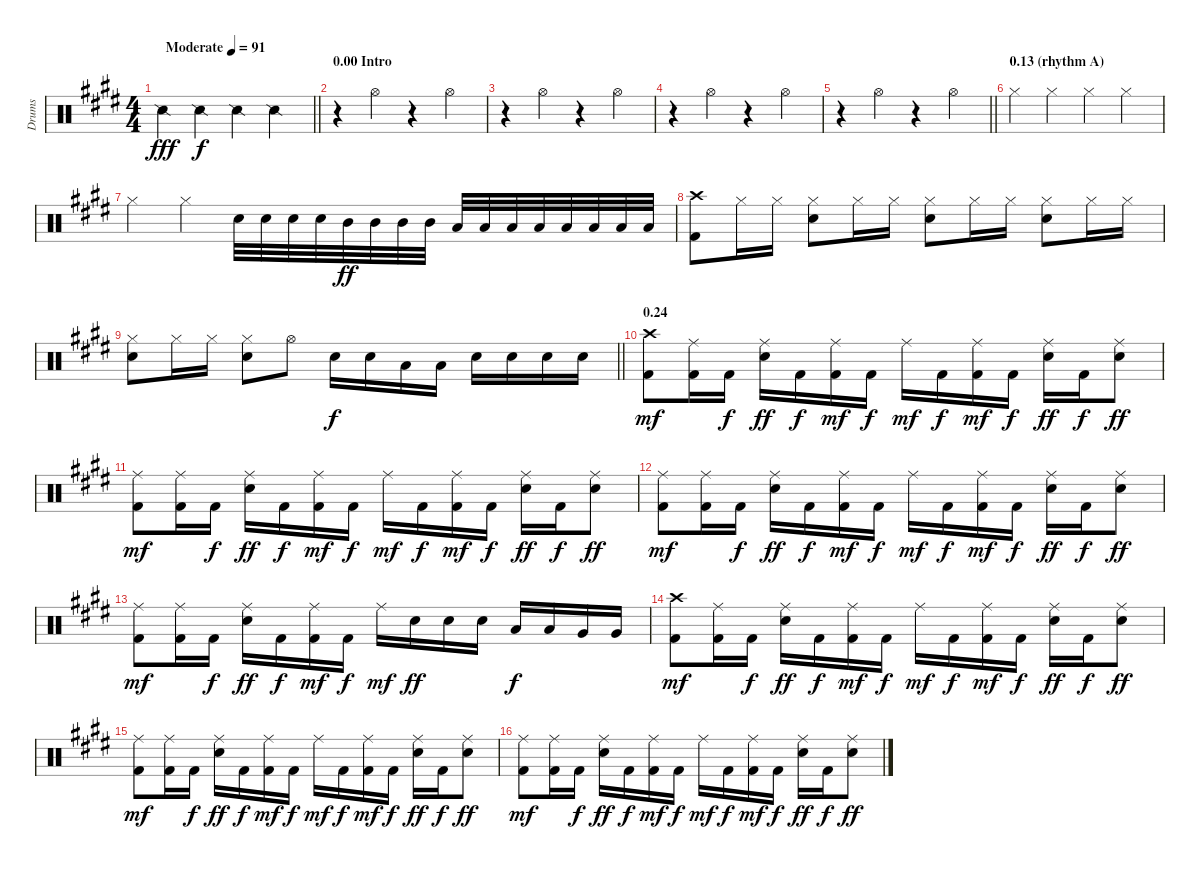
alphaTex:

\track ("Drums" "Drums") {instrument percussion}
\staff {score}
\articulation defaults
\ts (4 4)
\tempo (91 "Moderate")
\clef neutral
\barLineRight lightlight
\ks e "Snare (side stick) 2".4{dy fff} "Snare (side stick) 2".4{dy f} "Snare (side stick) 2".4 "Snare (side stick) 2".4
|
\section ("" "0.00 Intro")
r.4 "Hi-Hat (open)".4 r.4 "Hi-Hat (open)".4 |
r.4 "Hi-Hat (open)".4 r.4 "Hi-Hat (open)".4 |
r.4 "Hi-Hat (open)".4 r.4 "Hi-Hat (open)".4 |
\barLineRight lightlight
r.4 "Hi-Hat (open)".4 r.4 "Hi-Hat (open)".4 |
\section ("" "0.13 (rhythm A)")
"Hi-Hat (closed)".4 "Hi-Hat (closed)".4 "Hi-Hat (closed)".4 "Hi-Hat (closed)".4 |
"Hi-Hat (closed)".4 "Hi-Hat (closed)".4 "Snare (hit) 2".32 "Snare (hit) 2".32 "Snare (hit) 2".32 "Snare (hit) 2".32 "Mid Tom (hit)".32{dy ff} "Mid Tom (hit)".32 "Mid Tom (hit)".32 "Mid Tom (hit)".32 "Low Tom (hit)".32 "Low Tom (hit)".32 "Low Tom (hit)".32 "Low Tom (hit)".32 "Low Floor Tom (hit)".32 "Low Floor Tom (hit)".32 "Low Floor Tom (hit)".32 "Low Floor Tom (hit)".32 |
("Crash high (hit)" "Kick (hit) 2").8 "Hi-Hat (closed)".16 "Hi-Hat (closed)".16 ("Hi-Hat (closed)" "Snare (hit) 2").8 "Hi-Hat (closed)".16 "Hi-Hat (closed)".16 ("Hi-Hat (closed)" "Snare (hit) 2").8 "Hi-Hat (closed)".16 "Hi-Hat (closed)".16 ("Hi-Hat (closed)" "Snare (hit) 2").8 "Hi-Hat (closed)".16 "Hi-Hat (closed)".16 |
\barLineRight lightlight
("Hi-Hat (closed)" "Snare (hit) 2").8 "Hi-Hat (closed)".16 "Hi-Hat (closed)".16 ("Hi-Hat (closed)" "Snare (hit) 2").8 "Hi-Hat (open)".8 "Snare (hit) 2".16{dy f} "Snare (hit) 2".16 "Low Tom (hit)".16 "Low Tom (hit)".16 "Snare (hit) 2".16 "Snare (hit) 2".16 "Snare (hit) 2".16 "Snare (hit) 2".16 |
\section ("" "0.24")
("Crash high (hit)" "Kick (hit) 2").8{dy mf} ("Ride (middle)" "Kick (hit) 2").16 "Kick (hit) 2".16{dy f} ("Ride (middle)" "Snare (hit) 2").16{dy ff} "Kick (hit) 2".16{dy f} ("Ride (middle)" "Kick (hit) 2").16{dy mf} "Kick (hit) 2".16{dy f} "Ride (middle)".16{dy mf} "Kick (hit) 2".16{dy f} ("Ride (middle)" "Kick (hit) 2").16{dy mf} "Kick (hit) 2".16{dy f} ("Ride (middle)" "Snare (hit) 2").16{dy ff} "Kick (hit) 2".16{dy f} ("Ride (middle)" "Snare (hit) 2").8{dy ff} |
("Ride (middle)" "Kick (hit) 2").8{dy mf} ("Ride (middle)" "Kick (hit) 2").16 "Kick (hit) 2".16{dy f} ("Ride (middle)" "Snare (hit) 2").16{dy ff} "Kick (hit) 2".16{dy f} ("Ride (middle)" "Kick (hit) 2").16{dy mf} "Kick (hit) 2".16{dy f} "Ride (middle)".16{dy mf} "Kick (hit) 2".16{dy f} ("Ride (middle)" "Kick (hit) 2").16{dy mf} "Kick (hit) 2".16{dy f} ("Ride (middle)" "Snare (hit) 2").16{dy ff} "Kick (hit) 2".16{dy f} ("Ride (middle)" "Snare (hit) 2").8{dy ff} |
("Ride (middle)" "Kick (hit) 2").8{dy mf} ("Ride (middle)" "Kick (hit) 2").16 "Kick (hit) 2".16{dy f} ("Ride (middle)" "Snare (hit) 2").16{dy ff} "Kick (hit) 2".16{dy f} ("Ride (middle)" "Kick (hit) 2").16{dy mf} "Kick (hit) 2".16{dy f} "Ride (middle)".16{dy mf} "Kick (hit) 2".16{dy f} ("Ride (middle)" "Kick (hit) 2").16{dy mf} "Kick (hit) 2".16{dy f} ("Ride (middle)" "Snare (hit) 2").16{dy ff} "Kick (hit) 2".16{dy f} ("Ride (middle)" "Snare (hit) 2").8{dy ff} |
("Ride (middle)" "Kick (hit) 2").8{dy mf} ("Ride (middle)" "Kick (hit) 2").16 "Kick (hit) 2".16{dy f} ("Ride (middle)" "Snare (hit) 2").16{dy ff} "Kick (hit) 2".16{dy f} ("Ride (middle)" "Kick (hit) 2").16{dy mf} "Kick (hit) 2".16{dy f} "Ride (middle)".16{dy mf} "Snare (hit) 2".16{dy ff} "Snare (hit) 2".16 "Snare (hit) 2".16 "Low Tom (hit)".16{dy f} "Low Tom (hit)".16 "Very Low Tom (hit)".16 "Very Low Tom (hit)".16 |
("Crash high (hit)" "Kick (hit) 2").8{dy mf} ("Ride (middle)" "Kick (hit) 2").16 "Kick (hit) 2".16{dy f} ("Ride (middle)" "Snare (hit) 2").16{dy ff} "Kick (hit) 2".16{dy f} ("Ride (middle)" "Kick (hit) 2").16{dy mf} "Kick (hit) 2".16{dy f} "Ride (middle)".16{dy mf} "Kick (hit) 2".16{dy f} ("Ride (middle)" "Kick (hit) 2").16{dy mf} "Kick (hit) 2".16{dy f} ("Ride (middle)" "Snare (hit) 2").16{dy ff} "Kick (hit) 2".16{dy f} ("Ride (middle)" "Snare (hit) 2").8{dy ff} |
("Ride (middle)" "Kick (hit) 2").8{dy mf} ("Ride (middle)" "Kick (hit) 2").16 "Kick (hit) 2".16{dy f} ("Ride (middle)" "Snare (hit) 2").16{dy ff} "Kick (hit) 2".16{dy f} ("Ride (middle)" "Kick (hit) 2").16{dy mf} "Kick (hit) 2".16{dy f} "Ride (middle)".16{dy mf} "Kick (hit) 2".16{dy f} ("Ride (middle)" "Kick (hit) 2").16{dy mf} "Kick (hit) 2".16{dy f} ("Ride (middle)" "Snare (hit) 2").16{dy ff} "Kick (hit) 2".16{dy f} ("Ride (middle)" "Snare (hit) 2").8{dy ff} |
("Ride (middle)" "Kick (hit) 2").8{dy mf} ("Ride (middle)" "Kick (hit) 2").16 "Kick (hit) 2".16{dy f} ("Ride (middle)" "Snare (hit) 2").16{dy ff} "Kick (hit) 2".16{dy f} ("Ride (middle)" "Kick (hit) 2").16{dy mf} "Kick (hit) 2".16{dy f} "Ride (middle)".16{dy mf} "Kick (hit) 2".16{dy f} ("Ride (middle)" "Kick (hit) 2").16{dy mf} "Kick (hit) 2".16{dy f} ("Ride (middle)" "Snare (hit) 2").16{dy ff} "Kick (hit) 2".16{dy f} ("Ride (middle)" "Snare (hit) 2").8{dy ff}
